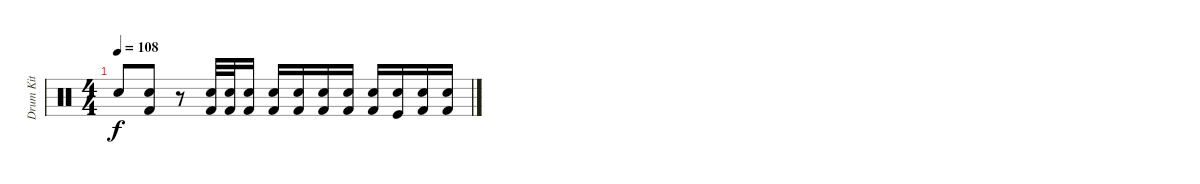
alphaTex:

\track ("Drum Kit" "Drum Kit") {instrument percussion}
\staff {score}
\articulation defaults
\ts (4 4)
\tempo 108
\clef neutral
\ks c "Snare (hit) 2".8{dy f}
("Snare (hit) 2" "Kick (hit) 2").8 r.8 ("Electric Snare (hit)" "Kick (hit) 2").32 ("Electric Snare (hit)" "Kick (hit) 2").32 ("Electric Snare (hit)" "Kick (hit) 2").16 ("Electric Snare (hit)" "Kick (hit) 2").16 ("Electric Snare (hit)" "Kick (hit) 2").16 ("Electric Snare (hit)" "Kick (hit) 2").16 ("Electric Snare (hit)" "Kick (hit) 2").16 ("Electric Snare (hit)" "Kick (hit) 2").16 ("Electric Snare (hit)" "Kick (hit)").16 ("Electric Snare (hit)" "Kick (hit) 2").16 ("Electric Snare (hit)" "Kick (hit) 2").16
